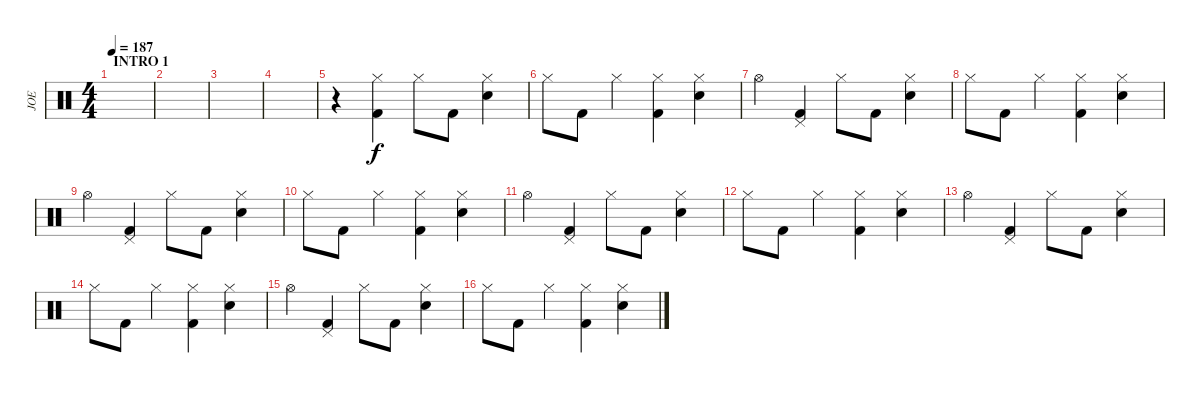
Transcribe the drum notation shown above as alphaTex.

\track ("JOE" "JOE") {instrument percussion}
\staff {score}
\articulation defaults
\ts (4 4)
\section ("" "INTRO 1")
\tempo 187
\clef neutral
\ks c
|
|
|
|
r.4 ("Hi-Hat (closed)" "Kick (hit) 2").4 "Hi-Hat (closed)".8 "Kick (hit) 2".8 ("Hi-Hat (closed)" "Snare (hit) 2").4 |
"Hi-Hat (closed)".8 "Kick (hit) 2".8 "Hi-Hat (closed)".4 ("Hi-Hat (closed)" "Kick (hit) 2").4 ("Hi-Hat (closed)" "Snare (hit) 2").4 |
"Hi-Hat (open)".4 ("Pedal Hi-Hat (hit)" "Kick (hit) 2").4 "Hi-Hat (closed)".8 "Kick (hit) 2".8 ("Hi-Hat (closed)" "Snare (hit) 2").4 |
"Hi-Hat (closed)".8 "Kick (hit) 2".8 "Hi-Hat (closed)".4 ("Hi-Hat (closed)" "Kick (hit) 2").4 ("Hi-Hat (closed)" "Snare (hit) 2").4 |
"Hi-Hat (open)".4 ("Pedal Hi-Hat (hit)" "Kick (hit) 2").4 "Hi-Hat (closed)".8 "Kick (hit) 2".8 ("Hi-Hat (closed)" "Snare (hit) 2").4 |
"Hi-Hat (closed)".8 "Kick (hit) 2".8 "Hi-Hat (closed)".4 ("Hi-Hat (closed)" "Kick (hit) 2").4 ("Hi-Hat (closed)" "Snare (hit) 2").4 |
"Hi-Hat (open)".4 ("Pedal Hi-Hat (hit)" "Kick (hit) 2").4 "Hi-Hat (closed)".8 "Kick (hit) 2".8 ("Hi-Hat (closed)" "Snare (hit) 2").4 |
"Hi-Hat (closed)".8 "Kick (hit) 2".8 "Hi-Hat (closed)".4 ("Hi-Hat (closed)" "Kick (hit) 2").4 ("Hi-Hat (closed)" "Snare (hit) 2").4 |
"Hi-Hat (open)".4 ("Pedal Hi-Hat (hit)" "Kick (hit) 2").4 "Hi-Hat (closed)".8 "Kick (hit) 2".8 ("Hi-Hat (closed)" "Snare (hit) 2").4 |
"Hi-Hat (closed)".8 "Kick (hit) 2".8 "Hi-Hat (closed)".4 ("Hi-Hat (closed)" "Kick (hit) 2").4 ("Hi-Hat (closed)" "Snare (hit) 2").4 |
"Hi-Hat (open)".4 ("Pedal Hi-Hat (hit)" "Kick (hit) 2").4 "Hi-Hat (closed)".8 "Kick (hit) 2".8 ("Hi-Hat (closed)" "Snare (hit) 2").4 |
"Hi-Hat (closed)".8 "Kick (hit) 2".8 "Hi-Hat (closed)".4 ("Hi-Hat (closed)" "Kick (hit) 2").4 ("Hi-Hat (closed)" "Snare (hit) 2").4
